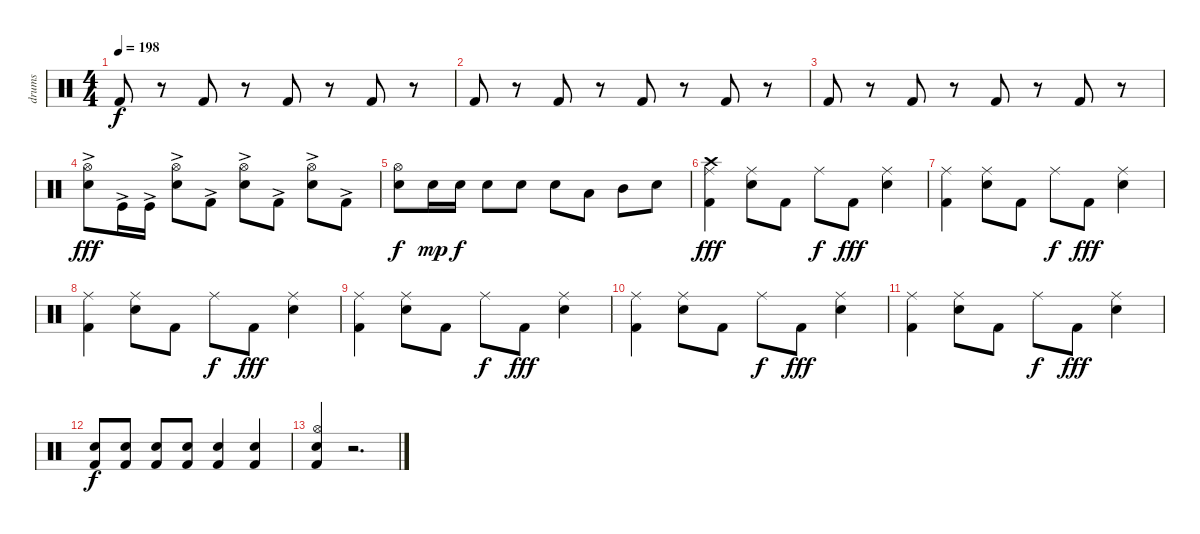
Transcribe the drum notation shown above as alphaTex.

\track ("drums" "drums") {instrument percussion}
\staff {score}
\articulation defaults
\ts (4 4)
\tempo 198
\clef neutral
\ks c "Kick (hit) 2".8{dy f}
r.8 "Kick (hit) 2".8 r.8 "Kick (hit) 2".8 r.8 "Kick (hit) 2".8 r.8 |
"Kick (hit) 2".8 r.8 "Kick (hit) 2".8 r.8 "Kick (hit) 2".8 r.8 "Kick (hit) 2".8 r.8 |
"Kick (hit) 2".8 r.8 "Kick (hit) 2".8 r.8 "Kick (hit) 2".8 r.8 "Kick (hit) 2".8 r.8 |
("Hi-Hat (open)"{ac} "Electric Snare (hit)").8{dy fff} "Kick (hit)"{ac}.16 "Kick (hit)"{ac}.16 ("Hi-Hat (open)"{ac} "Electric Snare (hit)"{ac}).8 "Kick (hit) 2"{ac}.8 ("Hi-Hat (open)"{ac} "Electric Snare (hit)"{ac}).8 "Kick (hit) 2"{ac}.8 ("Hi-Hat (open)"{ac} "Electric Snare (hit)"{ac}).8 "Kick (hit) 2"{ac}.8 |
("Hi-Hat (open)" "Electric Snare (hit)").8{dy f} "Electric Snare (hit)".16{dy mp} "Electric Snare (hit)".16{dy f} "Electric Snare (hit)".8 "Electric Snare (hit)".8 "Electric Snare (hit)".8 "Low Tom (hit)".8{balance 12} "Mid Tom (hit)".8{balance 8} "Electric Snare (hit)".8{balance 8} |
("Ride (middle)" "Crash high (hit)" "Kick (hit) 2").4{dy fff} ("Ride (middle)" "Snare (hit) 2").8 "Kick (hit) 2".8 "Ride (middle)".8{dy f} "Kick (hit) 2".8{dy fff} ("Ride (middle)" "Snare (hit) 2").4 |
("Ride (middle)" "Kick (hit) 2").4 ("Ride (middle)" "Snare (hit) 2").8 "Kick (hit) 2".8 "Ride (middle)".8{dy f} "Kick (hit) 2".8{dy fff} ("Ride (middle)" "Snare (hit) 2").4 |
("Ride (middle)" "Kick (hit) 2").4 ("Ride (middle)" "Snare (hit) 2").8 "Kick (hit) 2".8 "Ride (middle)".8{dy f} "Kick (hit) 2".8{dy fff} ("Ride (middle)" "Snare (hit) 2").4 |
("Ride (middle)" "Kick (hit) 2").4 ("Ride (middle)" "Snare (hit) 2").8 "Kick (hit) 2".8 "Ride (middle)".8{dy f} "Kick (hit) 2".8{dy fff} ("Ride (middle)" "Snare (hit) 2").4 |
("Ride (middle)" "Kick (hit) 2").4 ("Ride (middle)" "Snare (hit) 2").8 "Kick (hit) 2".8 "Ride (middle)".8{dy f} "Kick (hit) 2".8{dy fff} ("Ride (middle)" "Snare (hit) 2").4 |
("Ride (middle)" "Kick (hit) 2").4 ("Ride (middle)" "Snare (hit) 2").8 "Kick (hit) 2".8 "Ride (middle)".8{dy f} "Kick (hit) 2".8{dy fff} ("Ride (middle)" "Snare (hit) 2").4 |
("Electric Snare (hit)" "Kick (hit) 2").8{dy f} ("Electric Snare (hit)" "Kick (hit) 2").8 ("Electric Snare (hit)" "Kick (hit) 2").8 ("Electric Snare (hit)" "Kick (hit) 2").8 ("Electric Snare (hit)" "Kick (hit) 2").4 ("Electric Snare (hit)" "Kick (hit) 2").4 |
("Hi-Hat (open)" "Electric Snare (hit)" "Kick (hit) 2").4 r.2{d}
